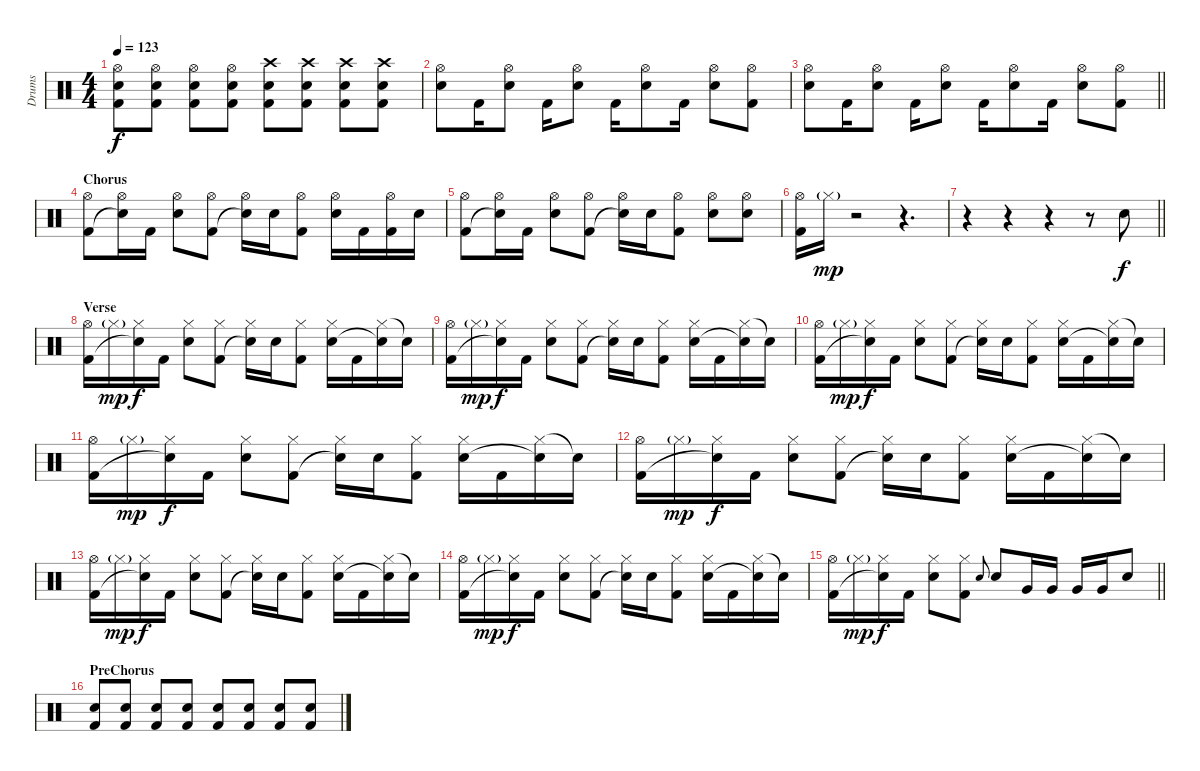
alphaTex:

\track ("Drums" "Drums") {instrument percussion}
\staff {score}
\articulation defaults
\ts (4 4)
\tempo 123
\clef neutral
\ks c
("Hi-Hat (open)" "Electric Snare (hit)" "Kick (hit) 2").8{dy f} ("Hi-Hat (open)" "Electric Snare (hit)" "Kick (hit) 2").8 ("Hi-Hat (open)" "Electric Snare (hit)" "Kick (hit) 2").8 ("Hi-Hat (open)" "Electric Snare (hit)" "Kick (hit) 2").8 ("Crash high (hit)" "Electric Snare (hit)" "Kick (hit) 2").8 ("Crash high (hit)" "Electric Snare (hit)" "Kick (hit) 2").8 ("Crash high (hit)" "Electric Snare (hit)" "Kick (hit) 2").8 ("Crash high (hit)" "Electric Snare (hit)" "Kick (hit) 2").8 |
("Hi-Hat (open)" "Electric Snare (hit)").8 "Kick (hit) 2".16 ("Hi-Hat (open)" "Electric Snare (hit)").8 "Kick (hit) 2".16 ("Hi-Hat (open)" "Electric Snare (hit)").8 "Kick (hit) 2".16 ("Hi-Hat (open)" "Electric Snare (hit)").8 "Kick (hit) 2".16 ("Hi-Hat (open)" "Electric Snare (hit)").8 ("Hi-Hat (open)" "Kick (hit) 2").8 |
\barLineRight lightlight
("Hi-Hat (open)" "Electric Snare (hit)").8 "Kick (hit) 2".16 ("Hi-Hat (open)" "Electric Snare (hit)").8 "Kick (hit) 2".16 ("Hi-Hat (open)" "Electric Snare (hit)").8 "Kick (hit) 2".16 ("Hi-Hat (open)" "Electric Snare (hit)").8 "Kick (hit) 2".16 ("Hi-Hat (open)" "Electric Snare (hit)").8 ("Hi-Hat (open)" "Kick (hit) 2").8 |
\section ("" "Chorus")
("Hi-Hat (open)" "Kick (hit) 2").8 ("Hi-Hat (open)" "Snare (hit)"{t}).16 "Kick (hit) 2".16 ("Hi-Hat (open)" "Electric Snare (hit)").8 ("Hi-Hat (open)" "Kick (hit) 2").8 ("Hi-Hat (open)" "Snare (hit)"{t}).16 "Electric Snare (hit)".16 ("Hi-Hat (open)" "Kick (hit) 2").8 ("Hi-Hat (open)" "Electric Snare (hit)").16 "Kick (hit) 2".16 ("Hi-Hat (open)" "Kick (hit) 2").16 "Electric Snare (hit)".16 |
("Hi-Hat (open)" "Kick (hit) 2").8 ("Hi-Hat (open)" "Snare (hit)"{t}).16 "Kick (hit) 2".16 ("Hi-Hat (open)" "Electric Snare (hit)").8 ("Hi-Hat (open)" "Kick (hit) 2").8 ("Hi-Hat (open)" "Snare (hit)"{t}).16 "Electric Snare (hit)".16 ("Hi-Hat (open)" "Kick (hit) 2").8 ("Hi-Hat (open)" "Electric Snare (hit)").8 ("Hi-Hat (open)" "Electric Snare (hit)").8 |
("Hi-Hat (open)" "Kick (hit) 2").16 "Hi-Hat (closed)"{g}.16{dy mp} r.2 r.4{d} |
\barLineRight lightlight
r.4 r.4 r.4 r.8 "Electric Snare (hit)".8{dy f} |
\section ("" "Verse")
("Hi-Hat (open)" "Kick (hit) 2").16 "Hi-Hat (closed)"{g}.16{dy mp} ("Hi-Hat (closed)" "Snare (hit)"{t}).16{dy f} "Kick (hit) 2".16 ("Hi-Hat (closed)" "Electric Snare (hit)").8 ("Hi-Hat (closed)" "Kick (hit) 2").8 ("Hi-Hat (closed)" "Snare (hit)"{t}).16 "Electric Snare (hit)".16 ("Hi-Hat (closed)" "Kick (hit) 2").8 ("Hi-Hat (closed)" "Electric Snare (hit)").16 "Kick (hit) 2".16 ("Hi-Hat (closed)" "Snare (hit)"{t}).16 "Snare (hit)"{t}.16 |
("Hi-Hat (open)" "Kick (hit) 2").16 "Hi-Hat (closed)"{g}.16{dy mp} ("Hi-Hat (closed)" "Snare (hit)"{t}).16{dy f} "Kick (hit) 2".16 ("Hi-Hat (closed)" "Electric Snare (hit)").8 ("Hi-Hat (closed)" "Kick (hit) 2").8 ("Hi-Hat (closed)" "Snare (hit)"{t}).16 "Electric Snare (hit)".16 ("Hi-Hat (closed)" "Kick (hit) 2").8 ("Hi-Hat (closed)" "Electric Snare (hit)").16 "Kick (hit) 2".16 ("Hi-Hat (closed)" "Snare (hit)"{t}).16 "Snare (hit)"{t}.16 |
("Hi-Hat (open)" "Kick (hit) 2").16 "Hi-Hat (closed)"{g}.16{dy mp} ("Hi-Hat (closed)" "Snare (hit)"{t}).16{dy f} "Kick (hit) 2".16 ("Hi-Hat (closed)" "Electric Snare (hit)").8 ("Hi-Hat (closed)" "Kick (hit) 2").8 ("Hi-Hat (closed)" "Snare (hit)"{t}).16 "Electric Snare (hit)".16 ("Hi-Hat (closed)" "Kick (hit) 2").8 ("Hi-Hat (closed)" "Electric Snare (hit)").16 "Kick (hit) 2".16 ("Hi-Hat (closed)" "Snare (hit)"{t}).16 "Snare (hit)"{t}.16 |
("Hi-Hat (open)" "Kick (hit) 2").16 "Hi-Hat (closed)"{g}.16{dy mp} ("Hi-Hat (closed)" "Snare (hit)"{t}).16{dy f} "Kick (hit) 2".16 ("Hi-Hat (closed)" "Electric Snare (hit)").8 ("Hi-Hat (closed)" "Kick (hit) 2").8 ("Hi-Hat (closed)" "Snare (hit)"{t}).16 "Electric Snare (hit)".16 ("Hi-Hat (closed)" "Kick (hit) 2").8 ("Hi-Hat (closed)" "Electric Snare (hit)").16 "Kick (hit) 2".16 ("Hi-Hat (closed)" "Snare (hit)"{t}).16 "Snare (hit)"{t}.16 |
("Hi-Hat (open)" "Kick (hit) 2").16 "Hi-Hat (closed)"{g}.16{dy mp} ("Hi-Hat (closed)" "Snare (hit)"{t}).16{dy f} "Kick (hit) 2".16 ("Hi-Hat (closed)" "Electric Snare (hit)").8 ("Hi-Hat (closed)" "Kick (hit) 2").8 ("Hi-Hat (closed)" "Snare (hit)"{t}).16 "Electric Snare (hit)".16 ("Hi-Hat (closed)" "Kick (hit) 2").8 ("Hi-Hat (closed)" "Electric Snare (hit)").16 "Kick (hit) 2".16 ("Hi-Hat (closed)" "Snare (hit)"{t}).16 "Snare (hit)"{t}.16 |
("Hi-Hat (open)" "Kick (hit) 2").16 "Hi-Hat (closed)"{g}.16{dy mp} ("Hi-Hat (closed)" "Snare (hit)"{t}).16{dy f} "Kick (hit) 2".16 ("Hi-Hat (closed)" "Electric Snare (hit)").8 ("Hi-Hat (closed)" "Kick (hit) 2").8 ("Hi-Hat (closed)" "Snare (hit)"{t}).16 "Electric Snare (hit)".16 ("Hi-Hat (closed)" "Kick (hit) 2").8 ("Hi-Hat (closed)" "Electric Snare (hit)").16 "Kick (hit) 2".16 ("Hi-Hat (closed)" "Snare (hit)"{t}).16 "Snare (hit)"{t}.16 |
("Hi-Hat (open)" "Kick (hit) 2").16 "Hi-Hat (closed)"{g}.16{dy mp} ("Hi-Hat (closed)" "Snare (hit)"{t}).16{dy f} "Kick (hit) 2".16 ("Hi-Hat (closed)" "Electric Snare (hit)").8 ("Hi-Hat (closed)" "Kick (hit) 2").8 ("Hi-Hat (closed)" "Snare (hit)"{t}).16 "Electric Snare (hit)".16 ("Hi-Hat (closed)" "Kick (hit) 2").8 ("Hi-Hat (closed)" "Electric Snare (hit)").16 "Kick (hit) 2".16 ("Hi-Hat (closed)" "Snare (hit)"{t}).16 "Snare (hit)"{t}.16 |
\barLineRight lightlight
("Hi-Hat (open)" "Kick (hit) 2").16 "Hi-Hat (closed)"{g}.16{dy mp} ("Hi-Hat (closed)" "Snare (hit)"{t}).16{dy f} "Kick (hit) 2".16 ("Hi-Hat (closed)" "Electric Snare (hit)").8 ("Hi-Hat (closed)" "Kick (hit) 2").8 "Electric Snare (hit)".8{gr onbeat} "Electric Snare (hit)".8 "Very Low Tom (hit)".16 "Very Low Tom (hit)".16 "Very Low Tom (hit)".16 "Very Low Tom (hit)".16 "Electric Snare (hit)".8 |
\section ("" "PreChorus")
("Electric Snare (hit)" "Kick (hit) 2").8 ("Electric Snare (hit)" "Kick (hit) 2").8 ("Electric Snare (hit)" "Kick (hit) 2").8 ("Electric Snare (hit)" "Kick (hit) 2").8 ("Electric Snare (hit)" "Kick (hit) 2").8 ("Electric Snare (hit)" "Kick (hit) 2").8 ("Electric Snare (hit)" "Kick (hit) 2").8 ("Electric Snare (hit)" "Kick (hit) 2").8
